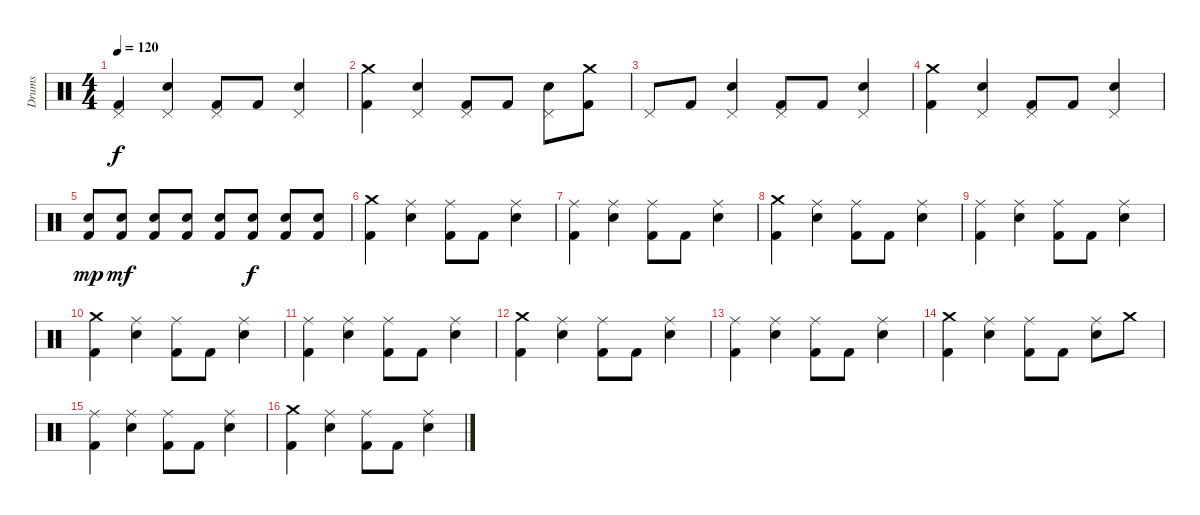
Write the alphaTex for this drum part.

\track ("Drums" "Drums") {instrument percussion}
\staff {score}
\articulation defaults
\ts (4 4)
\tempo 120
\clef neutral
\ks c
("Kick (hit) 2" "Pedal Hi-Hat (hit)").4{dy f} ("Snare (hit) 2" "Pedal Hi-Hat (hit)").4 ("Kick (hit) 2" "Pedal Hi-Hat (hit)").8 "Kick (hit) 2".8 ("Snare (hit) 2" "Pedal Hi-Hat (hit)").4 |
("Kick (hit) 2" "Crash medium (hit)").4 ("Pedal Hi-Hat (hit)" "Snare (hit) 2").4 ("Pedal Hi-Hat (hit)" "Kick (hit) 2").8 "Kick (hit) 2".8 ("Pedal Hi-Hat (hit)" "Snare (hit) 2").8 ("Kick (hit) 2" "Crash medium (hit)").8 |
"Pedal Hi-Hat (hit)".8 "Kick (hit) 2".8 ("Pedal Hi-Hat (hit)" "Snare (hit) 2").4 ("Kick (hit) 2" "Pedal Hi-Hat (hit)").8 "Kick (hit) 2".8 ("Pedal Hi-Hat (hit)" "Snare (hit) 2").4 |
("Crash medium (hit)" "Kick (hit) 2").4 ("Pedal Hi-Hat (hit)" "Snare (hit) 2").4 ("Pedal Hi-Hat (hit)" "Kick (hit) 2").8 "Kick (hit) 2".8 ("Snare (hit) 2" "Pedal Hi-Hat (hit)").4 |
("Kick (hit) 2" "Snare (hit) 2").8{dy mp} ("Kick (hit) 2" "Snare (hit) 2").8{dy mf} ("Kick (hit) 2" "Snare (hit) 2").8 ("Kick (hit) 2" "Snare (hit) 2").8 ("Kick (hit) 2" "Snare (hit) 2").8 ("Kick (hit) 2" "Snare (hit) 2").8{dy f} ("Kick (hit) 2" "Snare (hit) 2").8 ("Kick (hit) 2" "Snare (hit) 2").8 |
("Kick (hit) 2" "Crash medium (hit)").4 ("Ride (middle)" "Snare (hit) 2").4 ("Ride (middle)" "Kick (hit) 2").8 "Kick (hit) 2".8 ("Ride (middle)" "Snare (hit) 2").4 |
("Ride (middle)" "Kick (hit) 2").4 ("Ride (middle)" "Snare (hit) 2").4 ("Ride (middle)" "Kick (hit) 2").8 "Kick (hit) 2".8 ("Ride (middle)" "Snare (hit) 2").4 |
("Kick (hit) 2" "Crash medium (hit)").4 ("Ride (middle)" "Snare (hit) 2").4 ("Ride (middle)" "Kick (hit) 2").8 "Kick (hit) 2".8 ("Ride (middle)" "Snare (hit) 2").4 |
("Ride (middle)" "Kick (hit) 2").4 ("Ride (middle)" "Snare (hit) 2").4 ("Ride (middle)" "Kick (hit) 2").8 "Kick (hit) 2".8 ("Ride (middle)" "Snare (hit) 2").4 |
("Kick (hit) 2" "Crash medium (hit)").4 ("Ride (middle)" "Snare (hit) 2").4 ("Ride (middle)" "Kick (hit) 2").8 "Kick (hit) 2".8 ("Ride (middle)" "Snare (hit) 2").4 |
("Kick (hit) 2" "Ride (middle)").4 ("Ride (middle)" "Snare (hit) 2").4 ("Ride (middle)" "Kick (hit) 2").8 "Kick (hit) 2".8 ("Ride (middle)" "Snare (hit) 2").4 |
("Kick (hit) 2" "Crash medium (hit)").4 ("Ride (middle)" "Snare (hit) 2").4 ("Ride (middle)" "Kick (hit) 2").8 "Kick (hit) 2".8 ("Ride (middle)" "Snare (hit) 2").4 |
("Ride (middle)" "Kick (hit) 2").4 ("Ride (middle)" "Snare (hit) 2").4 ("Ride (middle)" "Kick (hit) 2").8 "Kick (hit) 2".8 ("Ride (middle)" "Snare (hit) 2").4 |
("Kick (hit) 2" "Crash medium (hit)").4 ("Ride (middle)" "Snare (hit) 2").4 ("Ride (middle)" "Kick (hit) 2").8 "Kick (hit) 2".8 ("Ride (middle)" "Snare (hit) 2").8 "Crash medium (hit)".8 |
("Ride (middle)" "Kick (hit) 2").4 ("Ride (middle)" "Snare (hit) 2").4 ("Ride (middle)" "Kick (hit) 2").8 "Kick (hit) 2".8 ("Ride (middle)" "Snare (hit) 2").4 |
("Kick (hit) 2" "Crash medium (hit)").4 ("Ride (middle)" "Snare (hit) 2").4 ("Ride (middle)" "Kick (hit) 2").8 "Kick (hit) 2".8 ("Ride (middle)" "Snare (hit) 2").4
